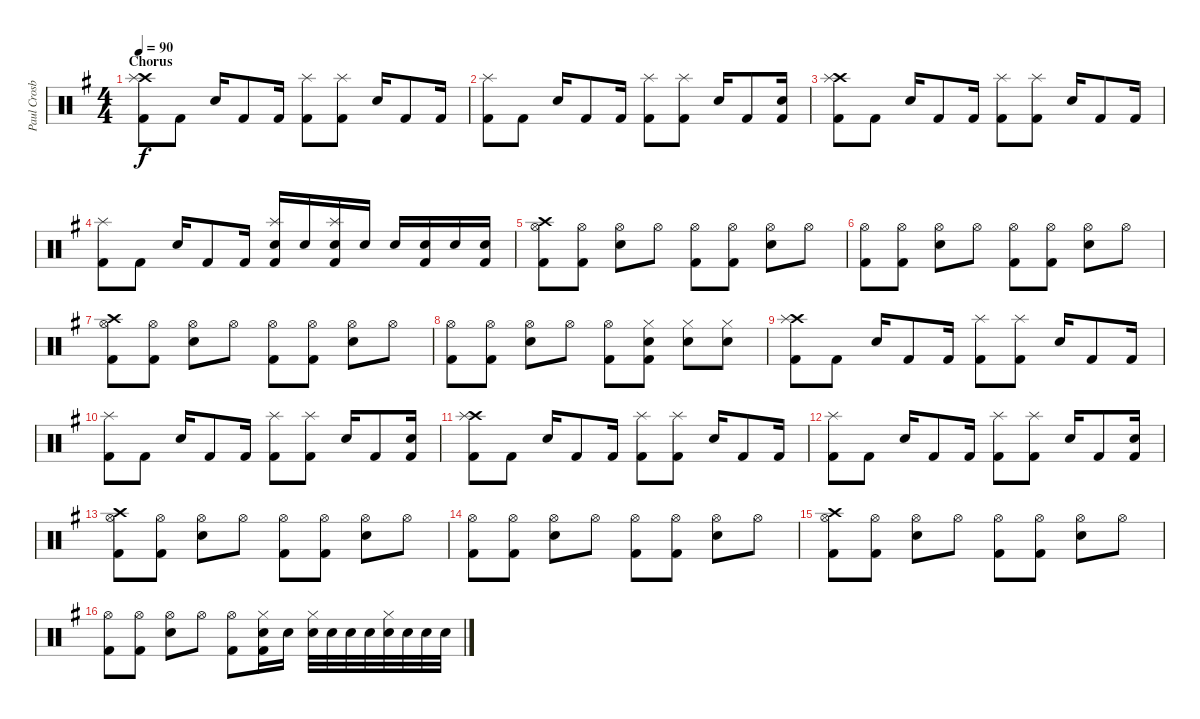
\track ("Paul Crosby (Drums)" "Paul Crosb") {instrument percussion}
\staff {score}
\articulation defaults
\ts (4 4)
\section ("" "Chorus")
\tempo 90
\clef neutral
\ks g
("Crash high (hit)" "Kick (hit) 2" "Splash (hit)").8{dy f} "Kick (hit) 2".8 "Electric Snare (hit)".16 "Kick (hit) 2".8 "Kick (hit) 2".16 ("Kick (hit) 2" "Splash (hit)").8 ("Kick (hit) 2" "Splash (hit)").8 "Electric Snare (hit)".16 "Kick (hit) 2".8 "Kick (hit) 2".16 |
("Kick (hit) 2" "Splash (hit)").8 "Kick (hit) 2".8 "Electric Snare (hit)".16 "Kick (hit) 2".8 "Kick (hit) 2".16 ("Kick (hit) 2" "Splash (hit)").8 ("Kick (hit) 2" "Splash (hit)").8 "Electric Snare (hit)".16 "Kick (hit) 2".8 ("Electric Snare (hit)" "Kick (hit) 2").16 |
("Crash high (hit)" "Kick (hit) 2" "Splash (hit)").8 "Kick (hit) 2".8 "Electric Snare (hit)".16 "Kick (hit) 2".8 "Kick (hit) 2".16 ("Kick (hit) 2" "Splash (hit)").8 ("Kick (hit) 2" "Splash (hit)").8 "Electric Snare (hit)".16 "Kick (hit) 2".8 "Kick (hit) 2".16 |
("Kick (hit) 2" "Splash (hit)").8 "Kick (hit) 2".8 "Electric Snare (hit)".16 "Kick (hit) 2".8 "Kick (hit) 2".16 ("Electric Snare (hit)" "Kick (hit) 2" "Splash (hit)").16 "Electric Snare (hit)".16 ("Electric Snare (hit)" "Kick (hit) 2" "Splash (hit)").16 "Electric Snare (hit)".16 "Electric Snare (hit)".16 ("Electric Snare (hit)" "Kick (hit) 2").16 "Electric Snare (hit)".16 ("Electric Snare (hit)" "Kick (hit) 2").16 |
("Hi-Hat (open)" "Kick (hit) 2" "Crash high (hit)").8 ("Hi-Hat (open)" "Kick (hit) 2").8 ("Hi-Hat (open)" "Electric Snare (hit)").8 "Hi-Hat (open)".8 ("Hi-Hat (open)" "Kick (hit) 2").8 ("Hi-Hat (open)" "Kick (hit) 2").8 ("Hi-Hat (open)" "Electric Snare (hit)").8 "Hi-Hat (open)".8 |
("Hi-Hat (open)" "Kick (hit) 2").8 ("Hi-Hat (open)" "Kick (hit) 2").8 ("Hi-Hat (open)" "Electric Snare (hit)").8 "Hi-Hat (open)".8 ("Hi-Hat (open)" "Kick (hit) 2").8 ("Hi-Hat (open)" "Kick (hit) 2").8 ("Hi-Hat (open)" "Electric Snare (hit)").8 "Hi-Hat (open)".8 |
("Hi-Hat (open)" "Kick (hit) 2" "Crash high (hit)").8 ("Hi-Hat (open)" "Kick (hit) 2").8 ("Hi-Hat (open)" "Electric Snare (hit)").8 "Hi-Hat (open)".8 ("Hi-Hat (open)" "Kick (hit) 2").8 ("Hi-Hat (open)" "Kick (hit) 2").8 ("Hi-Hat (open)" "Electric Snare (hit)").8 "Hi-Hat (open)".8 |
("Hi-Hat (open)" "Kick (hit) 2").8 ("Hi-Hat (open)" "Kick (hit) 2").8 ("Hi-Hat (open)" "Electric Snare (hit)").8 "Hi-Hat (open)".8 ("Hi-Hat (open)" "Kick (hit) 2").8 ("Electric Snare (hit)" "Kick (hit) 2" "Hi-Hat (closed)").8 ("Electric Snare (hit)" "Hi-Hat (closed)").8 ("Electric Snare (hit)" "Hi-Hat (closed)").8 |
("Crash high (hit)" "Kick (hit) 2" "Splash (hit)").8 "Kick (hit) 2".8 "Electric Snare (hit)".16 "Kick (hit) 2".8 "Kick (hit) 2".16 ("Kick (hit) 2" "Splash (hit)").8 ("Kick (hit) 2" "Splash (hit)").8 "Electric Snare (hit)".16 "Kick (hit) 2".8 "Kick (hit) 2".16 |
("Kick (hit) 2" "Splash (hit)").8 "Kick (hit) 2".8 "Electric Snare (hit)".16 "Kick (hit) 2".8 "Kick (hit) 2".16 ("Kick (hit) 2" "Splash (hit)").8 ("Kick (hit) 2" "Splash (hit)").8 "Electric Snare (hit)".16 "Kick (hit) 2".8 ("Electric Snare (hit)" "Kick (hit) 2").16 |
("Crash high (hit)" "Kick (hit) 2" "Splash (hit)").8 "Kick (hit) 2".8 "Electric Snare (hit)".16 "Kick (hit) 2".8 "Kick (hit) 2".16 ("Kick (hit) 2" "Splash (hit)").8 ("Kick (hit) 2" "Splash (hit)").8 "Electric Snare (hit)".16 "Kick (hit) 2".8 "Kick (hit) 2".16 |
("Kick (hit) 2" "Splash (hit)").8 "Kick (hit) 2".8 "Electric Snare (hit)".16 "Kick (hit) 2".8 "Kick (hit) 2".16 ("Kick (hit) 2" "Splash (hit)").8 ("Kick (hit) 2" "Splash (hit)").8 "Electric Snare (hit)".16 "Kick (hit) 2".8 ("Electric Snare (hit)" "Kick (hit) 2").16 |
("Hi-Hat (open)" "Kick (hit) 2" "Crash high (hit)").8 ("Hi-Hat (open)" "Kick (hit) 2").8 ("Hi-Hat (open)" "Electric Snare (hit)").8 "Hi-Hat (open)".8 ("Hi-Hat (open)" "Kick (hit) 2").8 ("Hi-Hat (open)" "Kick (hit) 2").8 ("Hi-Hat (open)" "Electric Snare (hit)").8 "Hi-Hat (open)".8 |
("Hi-Hat (open)" "Kick (hit) 2").8 ("Hi-Hat (open)" "Kick (hit) 2").8 ("Hi-Hat (open)" "Electric Snare (hit)").8 "Hi-Hat (open)".8 ("Hi-Hat (open)" "Kick (hit) 2").8 ("Hi-Hat (open)" "Kick (hit) 2").8 ("Hi-Hat (open)" "Electric Snare (hit)").8 "Hi-Hat (open)".8 |
("Hi-Hat (open)" "Kick (hit) 2" "Crash high (hit)").8 ("Hi-Hat (open)" "Kick (hit) 2").8 ("Hi-Hat (open)" "Electric Snare (hit)").8 "Hi-Hat (open)".8 ("Hi-Hat (open)" "Kick (hit) 2").8 ("Hi-Hat (open)" "Kick (hit) 2").8 ("Hi-Hat (open)" "Electric Snare (hit)").8 "Hi-Hat (open)".8 |
("Hi-Hat (open)" "Kick (hit) 2").8 ("Hi-Hat (open)" "Kick (hit) 2").8 ("Hi-Hat (open)" "Electric Snare (hit)").8 "Hi-Hat (open)".8 ("Hi-Hat (open)" "Kick (hit) 2").8 ("Electric Snare (hit)" "Kick (hit) 2" "Hi-Hat (closed)").16 "Electric Snare (hit)".16 ("Electric Snare (hit)" "Hi-Hat (closed)").32 "Electric Snare (hit)".32 "Electric Snare (hit)".32 "Electric Snare (hit)".32 ("Electric Snare (hit)" "Hi-Hat (closed)").32 "Electric Snare (hit)".32 "Electric Snare (hit)".32 "Electric Snare (hit)".32
